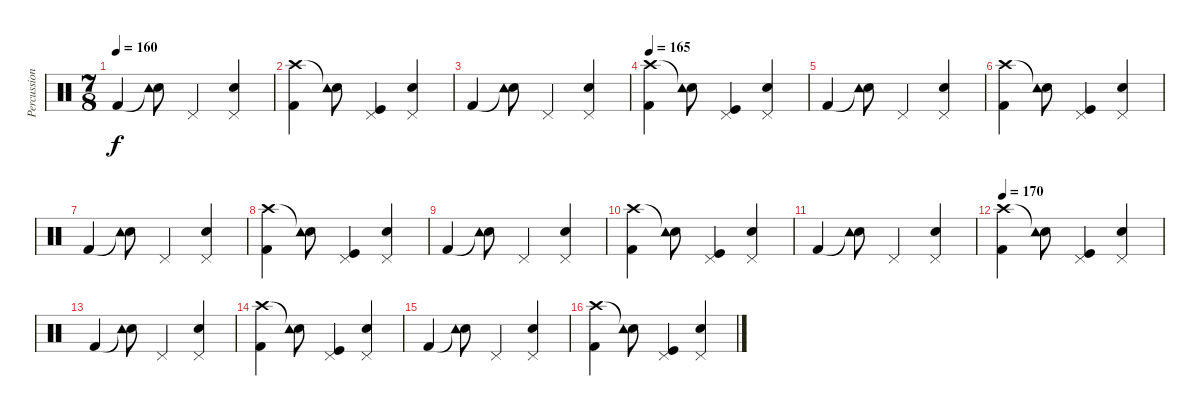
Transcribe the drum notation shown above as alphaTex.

\track ("Percussion" "Percussion") {instrument percussion}
\staff {score}
\articulation defaults
\ts (7 8)
\tempo 160
\clef neutral
\ks c "Kick (hit) 2".4{dy f}
("Snare (hit)"{t} "Tambourine (hit)").8 "Pedal Hi-Hat (hit)".4 ("Pedal Hi-Hat (hit)" "Snare (hit) 2").4 |
("Crash high (hit)" "Kick (hit) 2").4 ("Snare (hit)"{t} "Tambourine (hit)").8 ("Pedal Hi-Hat (hit)" "Kick (hit)").4 ("Pedal Hi-Hat (hit)" "Snare (hit) 2").4 |
"Kick (hit) 2".4 ("Snare (hit)"{t} "Tambourine (hit)").8 "Pedal Hi-Hat (hit)".4 ("Pedal Hi-Hat (hit)" "Snare (hit) 2").4 |
\tempo 165
("Crash high (hit)" "Kick (hit) 2").4 ("Snare (hit)"{t} "Tambourine (hit)").8 ("Pedal Hi-Hat (hit)" "Kick (hit)").4 ("Pedal Hi-Hat (hit)" "Snare (hit) 2").4 |
"Kick (hit) 2".4 ("Snare (hit)"{t} "Tambourine (hit)").8 "Pedal Hi-Hat (hit)".4 ("Pedal Hi-Hat (hit)" "Snare (hit) 2").4 |
("Crash high (hit)" "Kick (hit) 2").4 ("Snare (hit)"{t} "Tambourine (hit)").8 ("Pedal Hi-Hat (hit)" "Kick (hit)").4 ("Pedal Hi-Hat (hit)" "Snare (hit) 2").4 |
"Kick (hit) 2".4 ("Snare (hit)"{t} "Tambourine (hit)").8 "Pedal Hi-Hat (hit)".4 ("Pedal Hi-Hat (hit)" "Snare (hit) 2").4 |
("Crash high (hit)" "Kick (hit) 2").4 ("Snare (hit)"{t} "Tambourine (hit)").8 ("Pedal Hi-Hat (hit)" "Kick (hit)").4 ("Pedal Hi-Hat (hit)" "Snare (hit) 2").4 |
"Kick (hit) 2".4 ("Snare (hit)"{t} "Tambourine (hit)").8 "Pedal Hi-Hat (hit)".4 ("Pedal Hi-Hat (hit)" "Snare (hit) 2").4 |
("Crash high (hit)" "Kick (hit) 2").4 ("Snare (hit)"{t} "Tambourine (hit)").8 ("Pedal Hi-Hat (hit)" "Kick (hit)").4 ("Pedal Hi-Hat (hit)" "Snare (hit) 2").4 |
"Kick (hit) 2".4 ("Snare (hit)"{t} "Tambourine (hit)").8 "Pedal Hi-Hat (hit)".4 ("Pedal Hi-Hat (hit)" "Snare (hit) 2").4 |
\tempo 170
("Crash high (hit)" "Kick (hit) 2").4 ("Snare (hit)"{t} "Tambourine (hit)").8 ("Pedal Hi-Hat (hit)" "Kick (hit)").4 ("Pedal Hi-Hat (hit)" "Snare (hit) 2").4 |
"Kick (hit) 2".4 ("Snare (hit)"{t} "Tambourine (hit)").8 "Pedal Hi-Hat (hit)".4 ("Pedal Hi-Hat (hit)" "Snare (hit) 2").4 |
("Crash high (hit)" "Kick (hit) 2").4 ("Snare (hit)"{t} "Tambourine (hit)").8 ("Pedal Hi-Hat (hit)" "Kick (hit)").4 ("Pedal Hi-Hat (hit)" "Snare (hit) 2").4 |
"Kick (hit) 2".4 ("Snare (hit)"{t} "Tambourine (hit)").8 "Pedal Hi-Hat (hit)".4 ("Pedal Hi-Hat (hit)" "Snare (hit) 2").4 |
("Crash high (hit)" "Kick (hit) 2").4 ("Snare (hit)"{t} "Tambourine (hit)").8 ("Pedal Hi-Hat (hit)" "Kick (hit)").4 ("Pedal Hi-Hat (hit)" "Snare (hit) 2").4
